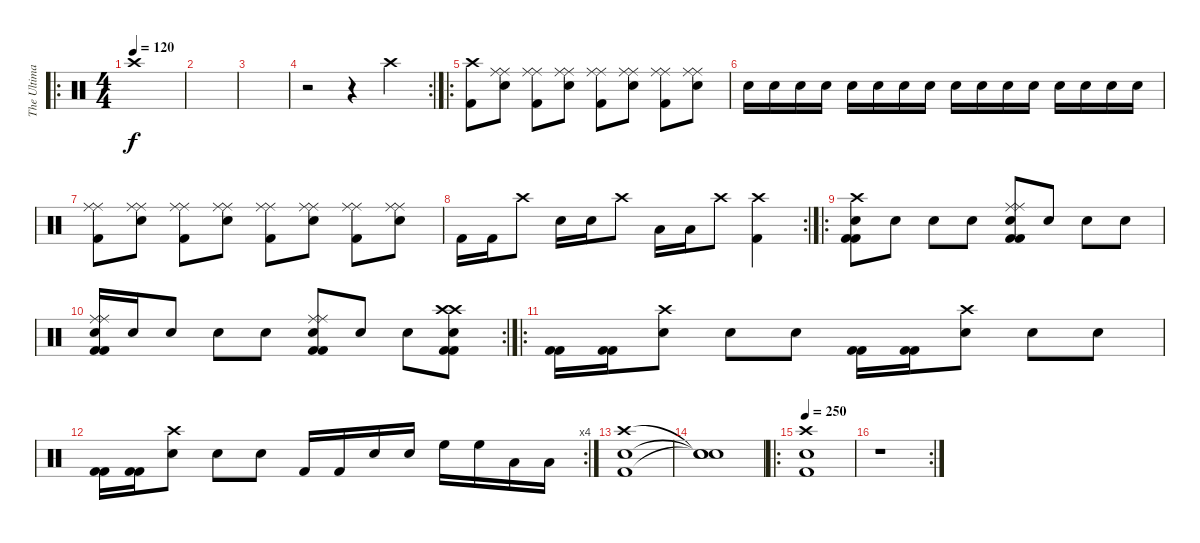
\track ("The Ultimate hero" "The Ultima") {instrument percussion}
\staff {score}
\articulation defaults
\ro
\ts (4 4)
\tempo 120
\clef neutral
\ks c "Crash high (hit)".1{dy f}
|
|
|
\rc 2
r.2 r.4 "Crash high (hit)".4 |
\ro
("Crash high (hit)" "Kick (hit) 2").8 ("Ride (middle)" "Ride (middle)" "Snare (hit) 2").8 ("Ride (middle)" "Ride (middle)" "Kick (hit) 2").8 ("Ride (middle)" "Ride (middle)" "Snare (hit) 2").8 ("Ride (middle)" "Ride (middle)" "Kick (hit) 2").8 ("Ride (middle)" "Ride (middle)" "Snare (hit) 2").8 ("Ride (middle)" "Ride (middle)" "Kick (hit) 2").8 ("Ride (middle)" "Ride (middle)" "Snare (hit) 2").8 |
"Snare (hit) 2".16 "Snare (hit) 2".16 "Snare (hit) 2".16 "Snare (hit) 2".16 "Snare (hit) 2".16 "Snare (hit) 2".16 "Snare (hit) 2".16 "Snare (hit) 2".16 "Snare (hit) 2".16 "Snare (hit) 2".16 "Snare (hit) 2".16 "Snare (hit) 2".16 "Snare (hit) 2".16 "Snare (hit) 2".16 "Snare (hit) 2".16 "Snare (hit) 2".16 |
("Ride (middle)" "Ride (middle)" "Kick (hit) 2").8 ("Ride (middle)" "Ride (middle)" "Snare (hit) 2").8 ("Ride (middle)" "Ride (middle)" "Kick (hit) 2").8 ("Ride (middle)" "Ride (middle)" "Snare (hit) 2").8 ("Ride (middle)" "Ride (middle)" "Kick (hit) 2").8 ("Ride (middle)" "Ride (middle)" "Snare (hit) 2").8 ("Ride (middle)" "Ride (middle)" "Kick (hit) 2").8 ("Ride (middle)" "Ride (middle)" "Snare (hit) 2").8 |
\rc 2 "Kick (hit) 2".16 "Kick (hit) 2".16 "Crash high (hit)".8 "Snare (hit) 2".16 "Snare (hit) 2".16 "Crash high (hit)".8 "Low Tom (hit)".16 "Low Tom (hit)".16 "Crash high (hit)".8
("Crash high (hit)" "Kick (hit) 2").4 |
\ro
("Crash high (hit)" "Kick (hit) 2" "Snare (hit) 2" "Kick (hit) 2").8 "Snare (hit) 2".8 "Snare (hit) 2".8 "Snare (hit) 2".8 ("Ride (middle)" "Ride (middle)" "Kick (hit) 2" "Snare (hit) 2" "Kick (hit) 2").8 "Snare (hit) 2".8 "Snare (hit) 2".8 "Snare (hit) 2".8 |
\rc 2
("Ride (middle)" "Ride (middle)" "Kick (hit) 2" "Snare (hit) 2" "Kick (hit) 2").16 "Snare (hit) 2".16 "Snare (hit) 2".8 "Snare (hit) 2".8 "Snare (hit) 2".8 ("Ride (middle)" "Ride (middle)" "Kick (hit) 2" "Snare (hit) 2" "Kick (hit) 2").8 "Snare (hit) 2".8 "Snare (hit) 2".8 ("Crash high (hit)" "Crash high (hit)" "Kick (hit) 2" "Snare (hit) 2" "Kick (hit) 2").8 |
\ro
("Kick (hit) 2" "Kick (hit) 2").16 ("Kick (hit) 2" "Kick (hit) 2").16 ("Crash high (hit)" "Snare (hit) 2").8 "Snare (hit) 2".8 "Snare (hit) 2".8 ("Kick (hit) 2" "Kick (hit) 2").16 ("Kick (hit) 2" "Kick (hit) 2").16 ("Crash high (hit)" "Snare (hit) 2").8 "Snare (hit) 2".8 "Snare (hit) 2".8 |
\rc 4
("Kick (hit) 2" "Kick (hit) 2").16 ("Kick (hit) 2" "Kick (hit) 2").16 ("Crash high (hit)" "Snare (hit) 2").8 "Snare (hit) 2".8 "Snare (hit) 2".8 "Kick (hit) 2".16 "Kick (hit) 2".16 "Snare (hit) 2".16 "Snare (hit) 2".16 "High Floor Tom (hit)".16 "High Floor Tom (hit)".16 "Low Tom (hit)".16 "Low Tom (hit)".16 |
("Crash high (hit)" "Snare (hit) 2" "Kick (hit) 2").1 |
("Snare (hit)"{t} "Snare (hit)"{t} "Snare (hit)"{t}).1 |
\ro
\tempo 250
("Crash high (hit)" "Snare (hit) 2" "Kick (hit) 2").1 |
\rc 2
r.1
